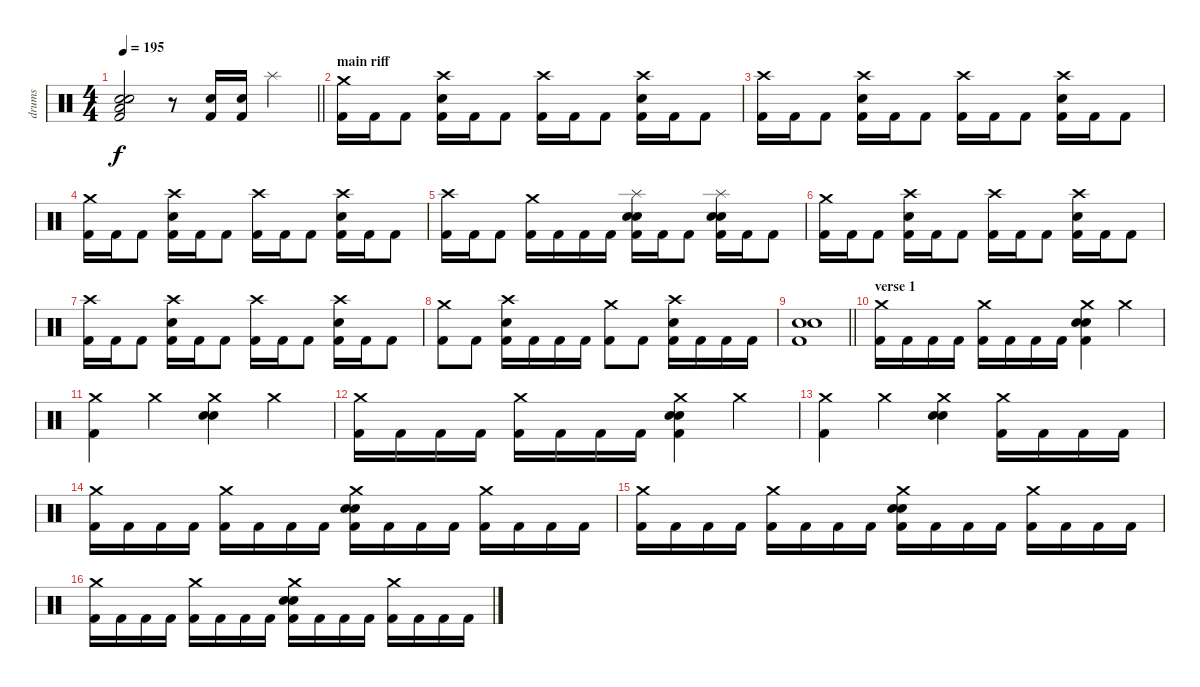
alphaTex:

\track ("drums" "drums") {instrument percussion bank 16}
\staff {score}
\articulation defaults
\ts (4 4)
\tempo 195
\clef neutral
\barLineRight lightlight
\ks c
("Low Tom (hit)" "Electric Snare (hit)" "Snare (hit) 2" "Kick (hit) 2").2{dy f} r.8 ("Electric Snare (hit)" "Kick (hit) 2").16 ("Electric Snare (hit)" "Kick (hit) 2").16 "Splash (hit)".4 |
\section ("" "main riff")
("Crash medium (hit)" "Kick (hit) 2").16 "Kick (hit) 2".16 "Kick (hit) 2".8 ("Crash high (hit)" "Electric Snare (hit)" "Kick (hit) 2").16 "Kick (hit) 2".16 "Kick (hit) 2".8 ("Crash high (hit)" "Kick (hit) 2").16 "Kick (hit) 2".16 "Kick (hit) 2".8 ("Crash high (hit)" "Electric Snare (hit)" "Kick (hit) 2").16 "Kick (hit) 2".16 "Kick (hit) 2".8 |
("Crash high (hit)" "Kick (hit) 2").16 "Kick (hit) 2".16 "Kick (hit) 2".8 ("Crash high (hit)" "Electric Snare (hit)" "Kick (hit) 2").16 "Kick (hit) 2".16 "Kick (hit) 2".8 ("Crash high (hit)" "Kick (hit) 2").16 "Kick (hit) 2".16 "Kick (hit) 2".8 ("Crash high (hit)" "Electric Snare (hit)" "Kick (hit) 2").16 "Kick (hit) 2".16 "Kick (hit) 2".8 |
("Crash medium (hit)" "Kick (hit) 2").16 "Kick (hit) 2".16 "Kick (hit) 2".8 ("Crash high (hit)" "Electric Snare (hit)" "Kick (hit) 2").16 "Kick (hit) 2".16 "Kick (hit) 2".8 ("Crash high (hit)" "Kick (hit) 2").16 "Kick (hit) 2".16 "Kick (hit) 2".8 ("Crash high (hit)" "Electric Snare (hit)" "Kick (hit) 2").16 "Kick (hit) 2".16 "Kick (hit) 2".8 |
("Crash high (hit)" "Kick (hit) 2").16 "Kick (hit) 2".16 "Kick (hit) 2".8 ("Crash medium (hit)" "Kick (hit) 2").16 "Kick (hit) 2".16 "Kick (hit) 2".16 "Kick (hit) 2".16 ("Splash (hit)" "Snare (hit) 2" "Electric Snare (hit)" "Kick (hit) 2").16 "Kick (hit) 2".16 "Kick (hit) 2".8 ("Splash (hit)" "Snare (hit) 2" "Electric Snare (hit)" "Kick (hit) 2").16 "Kick (hit) 2".16 "Kick (hit) 2".8 |
("Crash medium (hit)" "Kick (hit) 2").16 "Kick (hit) 2".16 "Kick (hit) 2".8 ("Crash high (hit)" "Electric Snare (hit)" "Kick (hit) 2").16 "Kick (hit) 2".16 "Kick (hit) 2".8 ("Crash high (hit)" "Kick (hit) 2").16 "Kick (hit) 2".16 "Kick (hit) 2".8 ("Crash high (hit)" "Electric Snare (hit)" "Kick (hit) 2").16 "Kick (hit) 2".16 "Kick (hit) 2".8 |
("Crash high (hit)" "Kick (hit) 2").16 "Kick (hit) 2".16 "Kick (hit) 2".8 ("Crash high (hit)" "Electric Snare (hit)" "Kick (hit) 2").16 "Kick (hit) 2".16 "Kick (hit) 2".8 ("Crash high (hit)" "Kick (hit) 2").16 "Kick (hit) 2".16 "Kick (hit) 2".8 ("Crash high (hit)" "Electric Snare (hit)" "Kick (hit) 2").16 "Kick (hit) 2".16 "Kick (hit) 2".8 |
("Crash medium (hit)" "Kick (hit) 2").8 "Kick (hit) 2".8 ("Crash high (hit)" "Electric Snare (hit)" "Kick (hit) 2").16 "Kick (hit) 2".16 "Kick (hit) 2".16 "Kick (hit) 2".16 ("Crash medium (hit)" "Kick (hit) 2").8 "Kick (hit) 2".8 ("Crash high (hit)" "Electric Snare (hit)" "Kick (hit) 2").16 "Kick (hit) 2".16 "Kick (hit) 2".16 "Kick (hit) 2".16 |
\barLineRight lightlight
("Snare (hit) 2" "Electric Snare (hit)" "Kick (hit) 2").1 |
\section ("" "verse 1")
("Crash medium (hit)" "Kick (hit) 2").16 "Kick (hit) 2".16 "Kick (hit) 2".16 "Kick (hit) 2".16 ("Crash medium (hit)" "Kick (hit) 2").16 "Kick (hit) 2".16 "Kick (hit) 2".16 "Kick (hit) 2".16 ("Crash medium (hit)" "Electric Snare (hit)" "Electric Snare (hit)" "Kick (hit) 2").4 "Crash medium (hit)".4 |
("Crash medium (hit)" "Kick (hit) 2").4 "Crash medium (hit)".4 ("Crash medium (hit)" "Electric Snare (hit)" "Electric Snare (hit)").4 "Crash medium (hit)".4 |
("Crash medium (hit)" "Kick (hit) 2").16 "Kick (hit) 2".16 "Kick (hit) 2".16 "Kick (hit) 2".16 ("Crash medium (hit)" "Kick (hit) 2").16 "Kick (hit) 2".16 "Kick (hit) 2".16 "Kick (hit) 2".16 ("Crash medium (hit)" "Electric Snare (hit)" "Electric Snare (hit)" "Kick (hit) 2").4 "Crash medium (hit)".4 |
("Crash medium (hit)" "Kick (hit) 2").4 "Crash medium (hit)".4 ("Crash medium (hit)" "Electric Snare (hit)" "Electric Snare (hit)").4 ("Crash medium (hit)" "Kick (hit) 2").16 "Kick (hit) 2".16 "Kick (hit) 2".16 "Kick (hit) 2".16 |
("Crash medium (hit)" "Kick (hit) 2").16 "Kick (hit) 2".16 "Kick (hit) 2".16 "Kick (hit) 2".16 ("Crash medium (hit)" "Kick (hit) 2").16 "Kick (hit) 2".16 "Kick (hit) 2".16 "Kick (hit) 2".16 ("Crash medium (hit)" "Electric Snare (hit)" "Electric Snare (hit)" "Kick (hit) 2").16 "Kick (hit) 2".16 "Kick (hit) 2".16 "Kick (hit) 2".16 ("Crash medium (hit)" "Kick (hit) 2").16 "Kick (hit) 2".16 "Kick (hit) 2".16 "Kick (hit) 2".16 |
("Crash medium (hit)" "Kick (hit) 2").16 "Kick (hit) 2".16 "Kick (hit) 2".16 "Kick (hit) 2".16 ("Crash medium (hit)" "Kick (hit) 2").16 "Kick (hit) 2".16 "Kick (hit) 2".16 "Kick (hit) 2".16 ("Crash medium (hit)" "Electric Snare (hit)" "Electric Snare (hit)" "Kick (hit) 2").16 "Kick (hit) 2".16 "Kick (hit) 2".16 "Kick (hit) 2".16 ("Crash medium (hit)" "Kick (hit) 2").16 "Kick (hit) 2".16 "Kick (hit) 2".16 "Kick (hit) 2".16 |
("Crash medium (hit)" "Kick (hit) 2").16 "Kick (hit) 2".16 "Kick (hit) 2".16 "Kick (hit) 2".16 ("Crash medium (hit)" "Kick (hit) 2").16 "Kick (hit) 2".16 "Kick (hit) 2".16 "Kick (hit) 2".16 ("Crash medium (hit)" "Electric Snare (hit)" "Electric Snare (hit)" "Kick (hit) 2").16 "Kick (hit) 2".16 "Kick (hit) 2".16 "Kick (hit) 2".16 ("Crash medium (hit)" "Kick (hit) 2").16 "Kick (hit) 2".16 "Kick (hit) 2".16 "Kick (hit) 2".16
